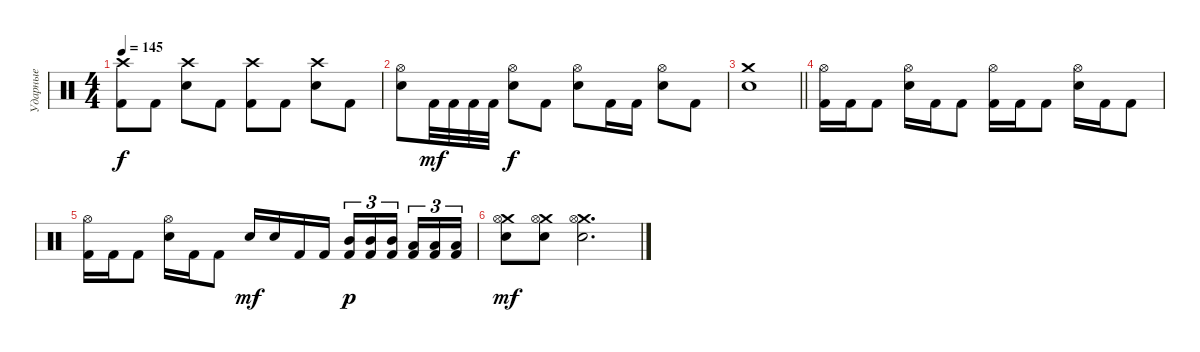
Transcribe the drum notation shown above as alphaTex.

\track ("Ударные" "Ударные") {instrument percussion bank 127}
\staff
\articulation defaults
\ts (4 4)
\tempo 145
\clef neutral
\ks c
("Kick (hit) 2" "Crash high (hit)").8{dy f} "Kick (hit) 2".8 ("Snare (hit) 2" "Crash high (hit)").8 "Kick (hit) 2".8 ("Kick (hit) 2" "Crash high (hit)").8 "Kick (hit) 2".8 ("Snare (hit) 2" "Crash high (hit)").8 "Kick (hit) 2".8 |
("Snare (hit) 2" "Hi-Hat (open)").8 "Kick (hit) 2".32{dy mf} "Kick (hit) 2".32 "Kick (hit) 2".32 "Kick (hit) 2".32 ("Snare (hit) 2" "Hi-Hat (open)").8{dy f} "Kick (hit) 2".8 ("Snare (hit) 2" "Hi-Hat (open)").8 "Kick (hit) 2".16 "Kick (hit) 2".16 ("Snare (hit) 2" "Hi-Hat (open)").8 "Kick (hit) 2".8 |
\barLineRight lightlight
("Snare (hit) 2" "Crash medium (hit)").1 |
("Kick (hit) 2" "Hi-Hat (open)").16 "Kick (hit) 2".16 "Kick (hit) 2".8 ("Snare (hit) 2" "Hi-Hat (open)").16 "Kick (hit) 2".16 "Kick (hit) 2".8 ("Kick (hit) 2" "Hi-Hat (open)").16 "Kick (hit) 2".16 "Kick (hit) 2".8 ("Snare (hit) 2" "Hi-Hat (open)").16 "Kick (hit) 2".16 "Kick (hit) 2".8 |
("Kick (hit) 2" "Hi-Hat (open)").16 "Kick (hit) 2".16 "Kick (hit) 2".8 ("Snare (hit) 2" "Hi-Hat (open)").16 "Kick (hit) 2".16 "Kick (hit) 2".8 "Snare (hit) 2".16{dy mf} "Snare (hit) 2".16 "Kick (hit) 2".16 "Kick (hit) 2".16 ("Mid Tom (hit)" "Kick (hit) 2").16{tu (3 2) dy p} ("Mid Tom (hit)" "Kick (hit) 2").16{tu (3 2)} ("Mid Tom (hit)" "Kick (hit) 2").16{tu (3 2) beam splitsecondary} ("Low Tom (hit)" "Kick (hit) 2").16{tu (3 2)} ("Low Tom (hit)" "Kick (hit) 2").16{tu (3 2)} ("Low Tom (hit)" "Kick (hit) 2").16{tu (3 2)} |
("Crash medium (hit)" "Snare (hit) 2" "Hi-Hat (open)").8{dy mf} ("Crash medium (hit)" "Snare (hit) 2" "Hi-Hat (open)").8 ("Crash medium (hit)" "Snare (hit) 2" "Hi-Hat (open)").2{d}
